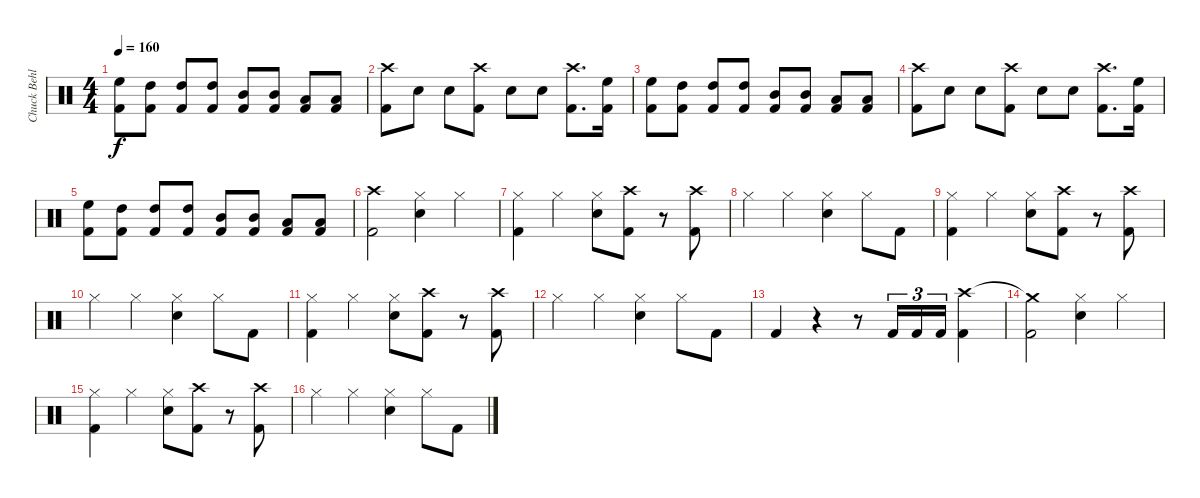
\track ("Chuck Behler" "Chuck Behl") {instrument percussion}
\staff {score}
\articulation defaults
\ts (4 4)
\tempo 160
\clef neutral
\ks c
("High Floor Tom (hit)" "Kick (hit) 2").8{dy f} ("High Tom (hit)" "Kick (hit) 2").8 ("High Tom (hit)" "Kick (hit) 2").8 ("High Tom (hit)" "Kick (hit) 2").8 ("Mid Tom (hit)" "Kick (hit) 2").8 ("Mid Tom (hit)" "Kick (hit) 2").8 ("Low Tom (hit)" "Kick (hit) 2").8 ("Low Tom (hit)" "Kick (hit) 2").8 |
("Crash high (hit)" "Kick (hit) 2").8 "Snare (hit) 2".8 "Snare (hit) 2".8 ("Crash high (hit)" "Kick (hit) 2").8 "Snare (hit) 2".8 "Snare (hit) 2".8 ("Crash high (hit)" "Kick (hit) 2").8{d} ("High Floor Tom (hit)" "Kick (hit) 2").16 |
("High Floor Tom (hit)" "Kick (hit) 2").8 ("High Tom (hit)" "Kick (hit) 2").8 ("High Tom (hit)" "Kick (hit) 2").8 ("High Tom (hit)" "Kick (hit) 2").8 ("Mid Tom (hit)" "Kick (hit) 2").8 ("Mid Tom (hit)" "Kick (hit) 2").8 ("Low Tom (hit)" "Kick (hit) 2").8 ("Low Tom (hit)" "Kick (hit) 2").8 |
("Crash high (hit)" "Kick (hit) 2").8 "Snare (hit) 2".8 "Snare (hit) 2".8 ("Crash high (hit)" "Kick (hit) 2").8 "Snare (hit) 2".8 "Snare (hit) 2".8 ("Crash high (hit)" "Kick (hit) 2").8{d} ("High Floor Tom (hit)" "Kick (hit) 2").16 |
("High Floor Tom (hit)" "Kick (hit) 2").8 ("High Tom (hit)" "Kick (hit) 2").8 ("High Tom (hit)" "Kick (hit) 2").8 ("High Tom (hit)" "Kick (hit) 2").8 ("Mid Tom (hit)" "Kick (hit) 2").8 ("Mid Tom (hit)" "Kick (hit) 2").8 ("Low Tom (hit)" "Kick (hit) 2").8 ("Low Tom (hit)" "Kick (hit) 2").8 |
("Crash high (hit)" "Kick (hit) 2").2 ("Hi-Hat (closed)" "Snare (hit) 2").4 "Hi-Hat (closed)".4 |
("Hi-Hat (closed)" "Kick (hit) 2").4 "Hi-Hat (closed)".4 ("Hi-Hat (closed)" "Snare (hit) 2").8 ("Crash high (hit)" "Kick (hit) 2").8 r.8 ("Crash high (hit)" "Kick (hit) 2").8 |
"Hi-Hat (closed)".4 "Hi-Hat (closed)".4 ("Hi-Hat (closed)" "Snare (hit) 2").4 "Hi-Hat (closed)".8 "Kick (hit) 2".8 |
("Hi-Hat (closed)" "Kick (hit) 2").4 "Hi-Hat (closed)".4 ("Hi-Hat (closed)" "Snare (hit) 2").8 ("Crash high (hit)" "Kick (hit) 2").8 r.8 ("Crash high (hit)" "Kick (hit) 2").8 |
"Hi-Hat (closed)".4 "Hi-Hat (closed)".4 ("Hi-Hat (closed)" "Snare (hit) 2").4 "Hi-Hat (closed)".8 "Kick (hit) 2".8 |
("Hi-Hat (closed)" "Kick (hit) 2").4 "Hi-Hat (closed)".4 ("Hi-Hat (closed)" "Snare (hit) 2").8 ("Crash high (hit)" "Kick (hit) 2").8 r.8 ("Crash high (hit)" "Kick (hit) 2").8 |
"Hi-Hat (closed)".4 "Hi-Hat (closed)".4 ("Hi-Hat (closed)" "Snare (hit) 2").4 "Hi-Hat (closed)".8 "Kick (hit) 2".8 |
"Kick (hit) 2".4 r.4 r.8 "Kick (hit) 2".16{tu (3 2)} "Kick (hit) 2".16{tu (3 2)} "Kick (hit) 2".16{tu (3 2)} ("Crash high (hit)" "Kick (hit) 2").4 |
("Crash medium (hit)"{t} "Kick (hit) 2").2 ("Hi-Hat (closed)" "Snare (hit) 2").4 "Hi-Hat (closed)".4 |
("Hi-Hat (closed)" "Kick (hit) 2").4 "Hi-Hat (closed)".4 ("Hi-Hat (closed)" "Snare (hit) 2").8 ("Crash high (hit)" "Kick (hit) 2").8 r.8 ("Crash high (hit)" "Kick (hit) 2").8 |
"Hi-Hat (closed)".4 "Hi-Hat (closed)".4 ("Hi-Hat (closed)" "Snare (hit) 2").4 "Hi-Hat (closed)".8 "Kick (hit) 2".8
